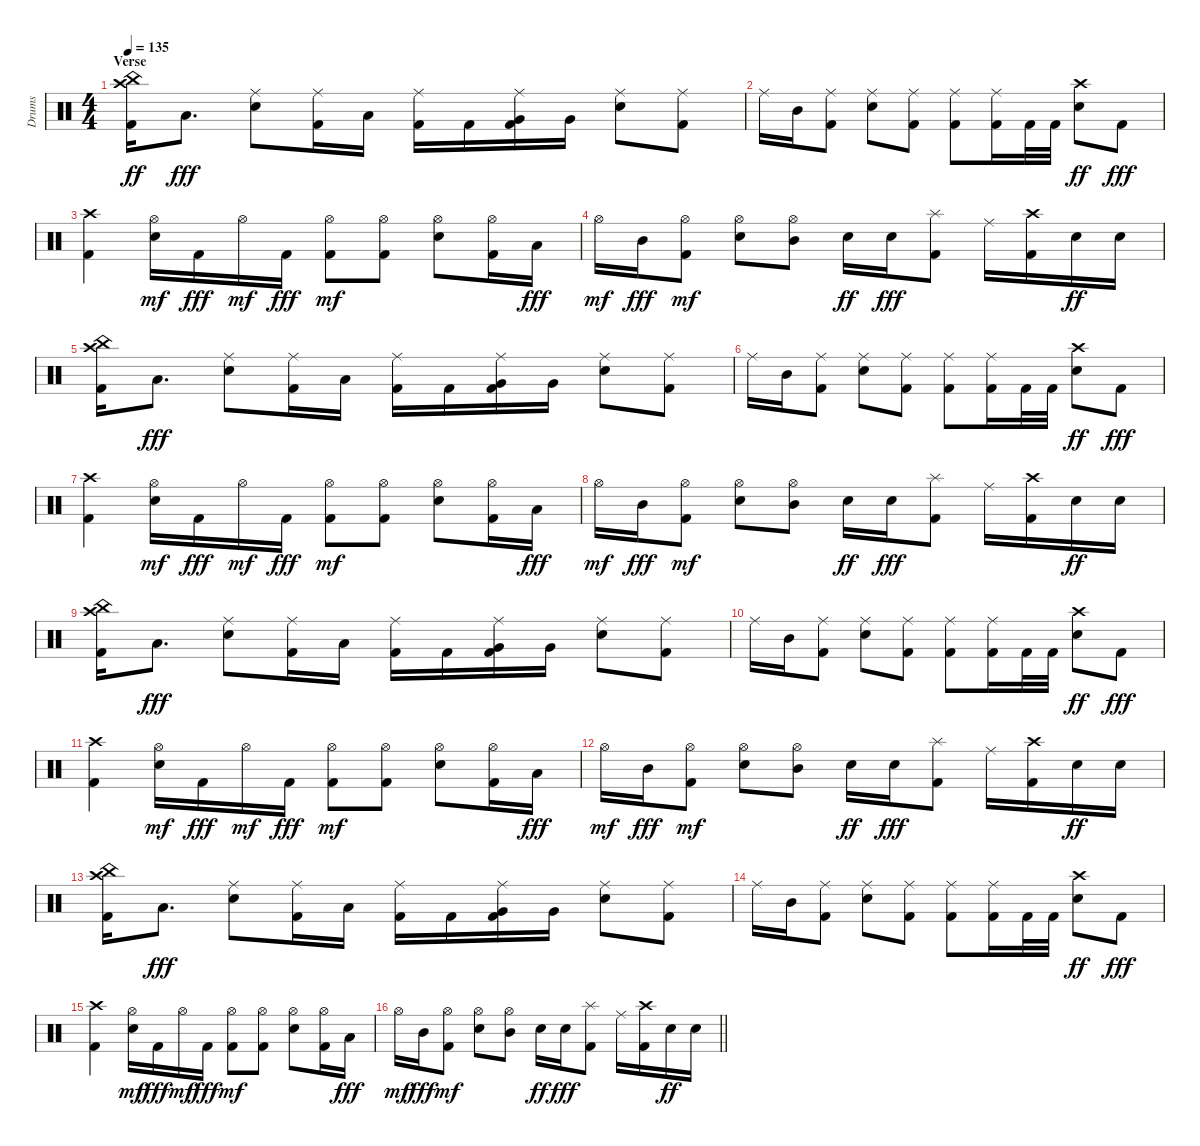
\track ("Drums" "Drums") {instrument percussion}
\staff {score}
\articulation defaults
\ts (4 4)
\section ("" "Verse")
\tempo 135
\clef neutral
\ks c
("Kick (hit) 2" "Crash high (hit)" "China (hit)").16{dy ff} "Low Tom (hit)".8{d dy fff} ("Snare (hit) 2" "Ride (middle)").8 ("Kick (hit) 2" "Ride (middle)").16 "Low Tom (hit)".16 ("Kick (hit) 2" "Ride (middle)").16 "Kick (hit) 2".16 ("Kick (hit) 2" "Very Low Tom (hit)" "Ride (middle)").16 "Very Low Tom (hit)".16 ("Snare (hit) 2" "Ride (middle)").8 ("Kick (hit) 2" "Ride (middle)").8 |
"Ride (middle)".16 "Mid Tom (hit)".16 ("Kick (hit) 2" "Ride (middle)").8 ("Snare (hit) 2" "Ride (middle)").8 ("Kick (hit) 2" "Ride (middle)").8 ("Kick (hit) 2" "Ride (middle)").8 ("Kick (hit) 2" "Ride (middle)").16 "Kick (hit) 2".32 "Kick (hit) 2".32 ("Snare (hit) 2" "Crash high (hit)").8{dy ff} "Kick (hit) 2".8{dy fff} |
("Kick (hit) 2" "Crash high (hit)").4 ("Snare (hit) 2" "Hi-Hat (open)").16{dy mf} "Kick (hit) 2".16{dy fff} "Hi-Hat (open)".16{dy mf} "Kick (hit) 2".16{dy fff} ("Kick (hit) 2" "Hi-Hat (open)").8{dy mf} ("Kick (hit) 2" "Hi-Hat (open)").8 ("Snare (hit) 2" "Hi-Hat (open)").8 ("Kick (hit) 2" "Hi-Hat (open)").16 "Low Tom (hit)".16{dy fff} |
"Hi-Hat (open)".16{dy mf} "Mid Tom (hit)".16{dy fff} ("Kick (hit) 2" "Hi-Hat (open)").8{dy mf} ("Snare (hit) 2" "Hi-Hat (open)").8 ("Mid Tom (hit)" "Hi-Hat (open)").8 "Snare (hit) 2".16{dy ff} "Snare (hit) 2".16{dy fff} ("Kick (hit) 2" "Splash (hit)").8 "Ride (middle)".16 ("Kick (hit) 2" "Crash high (hit)").16 "Snare (hit) 2".16{dy ff} "Snare (hit) 2".16 |
("Kick (hit) 2" "Crash high (hit)" "China (hit)").16 "Low Tom (hit)".8{d dy fff} ("Snare (hit) 2" "Ride (middle)").8 ("Kick (hit) 2" "Ride (middle)").16 "Low Tom (hit)".16 ("Kick (hit) 2" "Ride (middle)").16 "Kick (hit) 2".16 ("Kick (hit) 2" "Very Low Tom (hit)" "Ride (middle)").16 "Very Low Tom (hit)".16 ("Snare (hit) 2" "Ride (middle)").8 ("Kick (hit) 2" "Ride (middle)").8 |
"Ride (middle)".16 "Mid Tom (hit)".16 ("Kick (hit) 2" "Ride (middle)").8 ("Snare (hit) 2" "Ride (middle)").8 ("Kick (hit) 2" "Ride (middle)").8 ("Kick (hit) 2" "Ride (middle)").8 ("Kick (hit) 2" "Ride (middle)").16 "Kick (hit) 2".32 "Kick (hit) 2".32 ("Snare (hit) 2" "Crash high (hit)").8{dy ff} "Kick (hit) 2".8{dy fff} |
("Kick (hit) 2" "Crash high (hit)").4 ("Snare (hit) 2" "Hi-Hat (open)").16{dy mf} "Kick (hit) 2".16{dy fff} "Hi-Hat (open)".16{dy mf} "Kick (hit) 2".16{dy fff} ("Kick (hit) 2" "Hi-Hat (open)").8{dy mf} ("Kick (hit) 2" "Hi-Hat (open)").8 ("Snare (hit) 2" "Hi-Hat (open)").8 ("Kick (hit) 2" "Hi-Hat (open)").16 "Low Tom (hit)".16{dy fff} |
"Hi-Hat (open)".16{dy mf} "Mid Tom (hit)".16{dy fff} ("Kick (hit) 2" "Hi-Hat (open)").8{dy mf} ("Snare (hit) 2" "Hi-Hat (open)").8 ("Mid Tom (hit)" "Hi-Hat (open)").8 "Snare (hit) 2".16{dy ff} "Snare (hit) 2".16{dy fff} ("Kick (hit) 2" "Splash (hit)").8 "Ride (middle)".16 ("Kick (hit) 2" "Crash high (hit)").16 "Snare (hit) 2".16{dy ff} "Snare (hit) 2".16 |
("Kick (hit) 2" "Crash high (hit)" "China (hit)").16 "Low Tom (hit)".8{d dy fff} ("Snare (hit) 2" "Ride (middle)").8 ("Kick (hit) 2" "Ride (middle)").16 "Low Tom (hit)".16 ("Kick (hit) 2" "Ride (middle)").16 "Kick (hit) 2".16 ("Kick (hit) 2" "Very Low Tom (hit)" "Ride (middle)").16 "Very Low Tom (hit)".16 ("Snare (hit) 2" "Ride (middle)").8 ("Kick (hit) 2" "Ride (middle)").8 |
"Ride (middle)".16 "Mid Tom (hit)".16 ("Kick (hit) 2" "Ride (middle)").8 ("Snare (hit) 2" "Ride (middle)").8 ("Kick (hit) 2" "Ride (middle)").8 ("Kick (hit) 2" "Ride (middle)").8 ("Kick (hit) 2" "Ride (middle)").16 "Kick (hit) 2".32 "Kick (hit) 2".32 ("Snare (hit) 2" "Crash high (hit)").8{dy ff} "Kick (hit) 2".8{dy fff} |
("Kick (hit) 2" "Crash high (hit)").4 ("Snare (hit) 2" "Hi-Hat (open)").16{dy mf} "Kick (hit) 2".16{dy fff} "Hi-Hat (open)".16{dy mf} "Kick (hit) 2".16{dy fff} ("Kick (hit) 2" "Hi-Hat (open)").8{dy mf} ("Kick (hit) 2" "Hi-Hat (open)").8 ("Snare (hit) 2" "Hi-Hat (open)").8 ("Kick (hit) 2" "Hi-Hat (open)").16 "Low Tom (hit)".16{dy fff} |
"Hi-Hat (open)".16{dy mf} "Mid Tom (hit)".16{dy fff} ("Kick (hit) 2" "Hi-Hat (open)").8{dy mf} ("Snare (hit) 2" "Hi-Hat (open)").8 ("Mid Tom (hit)" "Hi-Hat (open)").8 "Snare (hit) 2".16{dy ff} "Snare (hit) 2".16{dy fff} ("Kick (hit) 2" "Splash (hit)").8 "Ride (middle)".16 ("Kick (hit) 2" "Crash high (hit)").16 "Snare (hit) 2".16{dy ff} "Snare (hit) 2".16 |
("Kick (hit) 2" "Crash high (hit)" "China (hit)").16 "Low Tom (hit)".8{d dy fff} ("Snare (hit) 2" "Ride (middle)").8 ("Kick (hit) 2" "Ride (middle)").16 "Low Tom (hit)".16 ("Kick (hit) 2" "Ride (middle)").16 "Kick (hit) 2".16 ("Kick (hit) 2" "Very Low Tom (hit)" "Ride (middle)").16 "Very Low Tom (hit)".16 ("Snare (hit) 2" "Ride (middle)").8 ("Kick (hit) 2" "Ride (middle)").8 |
"Ride (middle)".16 "Mid Tom (hit)".16 ("Kick (hit) 2" "Ride (middle)").8 ("Snare (hit) 2" "Ride (middle)").8 ("Kick (hit) 2" "Ride (middle)").8 ("Kick (hit) 2" "Ride (middle)").8 ("Kick (hit) 2" "Ride (middle)").16 "Kick (hit) 2".32 "Kick (hit) 2".32 ("Snare (hit) 2" "Crash high (hit)").8{dy ff} "Kick (hit) 2".8{dy fff} |
("Kick (hit) 2" "Crash high (hit)").4 ("Snare (hit) 2" "Hi-Hat (open)").16{dy mf} "Kick (hit) 2".16{dy fff} "Hi-Hat (open)".16{dy mf} "Kick (hit) 2".16{dy fff} ("Kick (hit) 2" "Hi-Hat (open)").8{dy mf} ("Kick (hit) 2" "Hi-Hat (open)").8 ("Snare (hit) 2" "Hi-Hat (open)").8 ("Kick (hit) 2" "Hi-Hat (open)").16 "Low Tom (hit)".16{dy fff} |
\barLineRight lightlight "Hi-Hat (open)".16{dy mf} "Mid Tom (hit)".16{dy fff}
("Kick (hit) 2" "Hi-Hat (open)").8{dy mf} ("Snare (hit) 2" "Hi-Hat (open)").8 ("Mid Tom (hit)" "Hi-Hat (open)").8 "Snare (hit) 2".16{dy ff} "Snare (hit) 2".16{dy fff} ("Kick (hit) 2" "Splash (hit)").8 "Ride (middle)".16 ("Kick (hit) 2" "Crash high (hit)").16 "Snare (hit) 2".16{dy ff} "Snare (hit) 2".16
